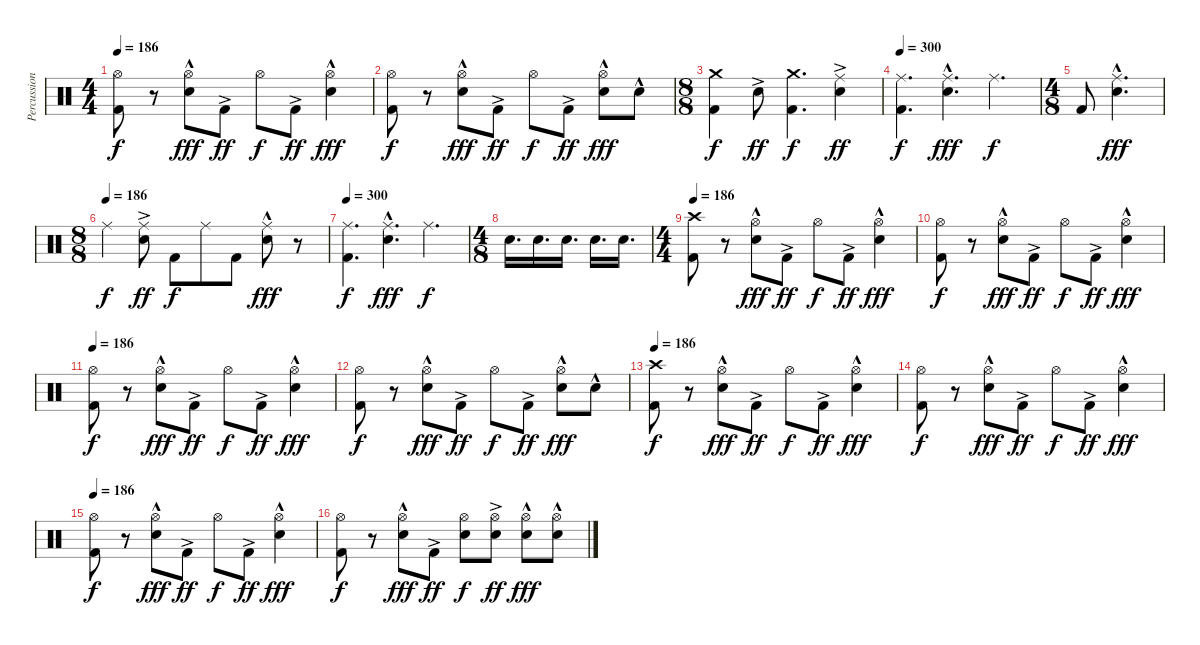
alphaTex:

\track ("Percussion" "Percussion") {instrument percussion}
\staff {score}
\articulation defaults
\ts (4 4)
\tempo 186
\clef neutral
\ks c
("Kick (hit) 2" "Hi-Hat (open)").8{dy f} r.8 ("Electric Snare (hit)"{hac} "Hi-Hat (open)").8{dy fff} "Kick (hit) 2"{ac}.8{dy ff} "Hi-Hat (open)".8{dy f} "Kick (hit) 2"{ac}.8{dy ff} ("Electric Snare (hit)"{hac} "Hi-Hat (open)").4{dy fff} |
("Kick (hit) 2" "Hi-Hat (open)").8{dy f} r.8 ("Electric Snare (hit)"{hac} "Hi-Hat (open)").8{dy fff} "Kick (hit) 2"{ac}.8{dy ff} "Hi-Hat (open)".8{dy f} "Kick (hit) 2"{ac}.8{dy ff} ("Electric Snare (hit)"{hac} "Hi-Hat (open)").8{dy fff} "Electric Snare (hit)"{hac}.8 |
\ts (8 8)
("Kick (hit) 2" "Crash medium (hit)").4{dy f} "Electric Snare (hit)"{ac}.8{dy ff} ("Kick (hit) 2" "Crash medium (hit)").4{d dy f} ("Electric Snare (hit)"{ac} "Ride (middle)").4{dy ff} |
\tempo 300
("Kick (hit) 2" "Ride (middle)").4{d dy f} ("Electric Snare (hit)"{hac} "Ride (middle)").4{d dy fff} "Ride (middle)".4{d dy f} |
\ts (4 8)
"Kick (hit) 2".8 ("Electric Snare (hit)"{hac} "Ride (middle)").4{d dy fff} |
\ts (8 8)
\tempo (186)
"Ride (middle)".4{dy f} ("Electric Snare (hit)"{ac} "Ride (middle)").8{dy ff} "Kick (hit) 2".8{dy f} "Ride (middle)".8 "Kick (hit) 2".8 ("Electric Snare (hit)"{hac} "Ride (middle)").8{dy fff} r.8 |
\tempo 300
("Kick (hit) 2" "Ride (middle)").4{d dy f} ("Electric Snare (hit)"{hac} "Ride (middle)").4{d dy fff} "Ride (middle)".4{d dy f} |
\ts (4 8)
"Electric Snare (hit)".16{d} "Electric Snare (hit)".16{d} "Electric Snare (hit)".16{d} "Electric Snare (hit)".16{d} "Electric Snare (hit)".16{d} |
\ts (4 4)
\tempo 186
("Kick (hit) 2" "Crash high (hit)").8 r.8 ("Electric Snare (hit)"{hac} "Hi-Hat (open)").8{dy fff} "Kick (hit) 2"{ac}.8{dy ff} "Hi-Hat (open)".8{dy f} "Kick (hit) 2"{ac}.8{dy ff} ("Electric Snare (hit)"{hac} "Hi-Hat (open)").4{dy fff} |
("Kick (hit) 2" "Hi-Hat (open)").8{dy f} r.8 ("Electric Snare (hit)"{hac} "Hi-Hat (open)").8{dy fff} "Kick (hit) 2"{ac}.8{dy ff} "Hi-Hat (open)".8{dy f} "Kick (hit) 2"{ac}.8{dy ff} ("Electric Snare (hit)"{hac} "Hi-Hat (open)").4{dy fff} |
\tempo 186
("Kick (hit) 2" "Hi-Hat (open)").8{dy f} r.8 ("Electric Snare (hit)"{hac} "Hi-Hat (open)").8{dy fff} "Kick (hit) 2"{ac}.8{dy ff} "Hi-Hat (open)".8{dy f} "Kick (hit) 2"{ac}.8{dy ff} ("Electric Snare (hit)"{hac} "Hi-Hat (open)").4{dy fff} |
("Kick (hit) 2" "Hi-Hat (open)").8{dy f} r.8 ("Electric Snare (hit)"{hac} "Hi-Hat (open)").8{dy fff} "Kick (hit) 2"{ac}.8{dy ff} "Hi-Hat (open)".8{dy f} "Kick (hit) 2"{ac}.8{dy ff} ("Electric Snare (hit)"{hac} "Hi-Hat (open)").8{dy fff} "Electric Snare (hit)"{hac}.8 |
\tempo 186
("Kick (hit) 2" "Crash high (hit)").8{dy f} r.8 ("Electric Snare (hit)"{hac} "Hi-Hat (open)").8{dy fff} "Kick (hit) 2"{ac}.8{dy ff} "Hi-Hat (open)".8{dy f} "Kick (hit) 2"{ac}.8{dy ff} ("Electric Snare (hit)"{hac} "Hi-Hat (open)").4{dy fff} |
("Kick (hit) 2" "Hi-Hat (open)").8{dy f} r.8 ("Electric Snare (hit)"{hac} "Hi-Hat (open)").8{dy fff} "Kick (hit) 2"{ac}.8{dy ff} "Hi-Hat (open)".8{dy f} "Kick (hit) 2"{ac}.8{dy ff} ("Electric Snare (hit)"{hac} "Hi-Hat (open)").4{dy fff} |
\tempo 186
("Kick (hit) 2" "Hi-Hat (open)").8{dy f} r.8 ("Electric Snare (hit)"{hac} "Hi-Hat (open)").8{dy fff} "Kick (hit) 2"{ac}.8{dy ff} "Hi-Hat (open)".8{dy f} "Kick (hit) 2"{ac}.8{dy ff} ("Electric Snare (hit)"{hac} "Hi-Hat (open)").4{dy fff} |
("Kick (hit) 2" "Hi-Hat (open)").8{dy f} r.8 ("Electric Snare (hit)"{hac} "Hi-Hat (open)").8{dy fff} "Kick (hit) 2"{ac}.8{dy ff} ("Electric Snare (hit)" "Hi-Hat (open)").8{dy f} ("Electric Snare (hit)"{ac} "Hi-Hat (open)").8{dy ff} ("Electric Snare (hit)"{hac} "Hi-Hat (open)").8{dy fff} ("Electric Snare (hit)"{hac} "Hi-Hat (open)").8
